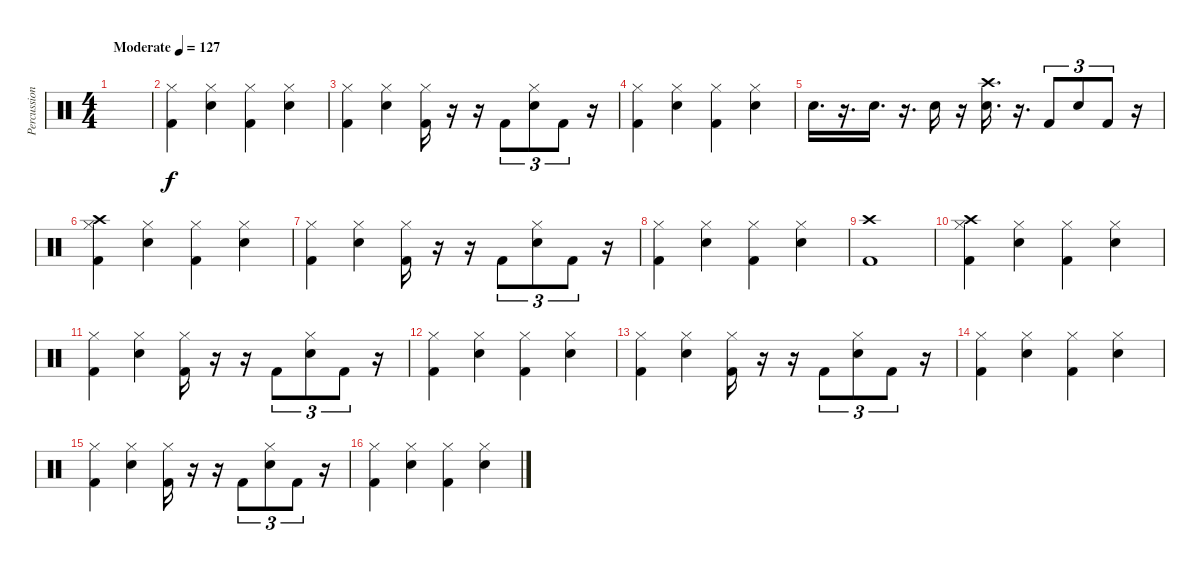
\track ("Percussions" "Percussion") {instrument percussion}
\staff {score}
\articulation defaults
\ts (4 4)
\tempo (127 "Moderate")
\clef neutral
\ks c
|
("Hi-Hat (closed)" "Kick (hit) 2").4 ("Hi-Hat (closed)" "Electric Snare (hit)").4 ("Hi-Hat (closed)" "Kick (hit) 2").4 ("Hi-Hat (closed)" "Electric Snare (hit)").4 |
("Hi-Hat (closed)" "Kick (hit) 2").4 ("Hi-Hat (closed)" "Electric Snare (hit)").4 ("Hi-Hat (closed)" "Kick (hit) 2").16 r.16 r.16 "Kick (hit) 2".8{tu (3 2)} ("Hi-Hat (closed)" "Electric Snare (hit)").8{tu (3 2)} "Kick (hit) 2".8{tu (3 2)} r.16 |
("Hi-Hat (closed)" "Kick (hit) 2").4 ("Hi-Hat (closed)" "Electric Snare (hit)").4 ("Hi-Hat (closed)" "Kick (hit) 2").4 ("Hi-Hat (closed)" "Electric Snare (hit)").4 |
"Electric Snare (hit)".16{d} r.16{d} "Electric Snare (hit)".16{d} r.16{d} "Electric Snare (hit)".16 r.16 ("Crash high (hit)" "Electric Snare (hit)").16{d} r.16{d} "Kick (hit) 2".8{tu (3 2)} "Electric Snare (hit)".8{tu (3 2)} "Kick (hit) 2".8{tu (3 2)} r.16 |
("Crash high (hit)" "Hi-Hat (closed)" "Kick (hit) 2").4 ("Hi-Hat (closed)" "Electric Snare (hit)").4 ("Hi-Hat (closed)" "Kick (hit) 2").4 ("Hi-Hat (closed)" "Electric Snare (hit)").4 |
("Hi-Hat (closed)" "Kick (hit) 2").4 ("Hi-Hat (closed)" "Electric Snare (hit)").4 ("Hi-Hat (closed)" "Kick (hit) 2").16 r.16 r.16 "Kick (hit) 2".8{tu (3 2)} ("Hi-Hat (closed)" "Electric Snare (hit)").8{tu (3 2)} "Kick (hit) 2".8{tu (3 2)} r.16 |
("Hi-Hat (closed)" "Kick (hit) 2").4 ("Hi-Hat (closed)" "Electric Snare (hit)").4 ("Hi-Hat (closed)" "Kick (hit) 2").4 ("Hi-Hat (closed)" "Electric Snare (hit)").4 |
("Crash high (hit)" "Kick (hit) 2").1 |
("Crash high (hit)" "Hi-Hat (closed)" "Kick (hit) 2").4 ("Hi-Hat (closed)" "Electric Snare (hit)").4 ("Hi-Hat (closed)" "Kick (hit) 2").4 ("Hi-Hat (closed)" "Electric Snare (hit)").4 |
("Hi-Hat (closed)" "Kick (hit) 2").4 ("Hi-Hat (closed)" "Electric Snare (hit)").4 ("Hi-Hat (closed)" "Kick (hit) 2").16 r.16 r.16 "Kick (hit) 2".8{tu (3 2)} ("Hi-Hat (closed)" "Electric Snare (hit)").8{tu (3 2)} "Kick (hit) 2".8{tu (3 2)} r.16 |
("Hi-Hat (closed)" "Kick (hit) 2").4 ("Hi-Hat (closed)" "Electric Snare (hit)").4 ("Hi-Hat (closed)" "Kick (hit) 2").4 ("Hi-Hat (closed)" "Electric Snare (hit)").4 |
("Hi-Hat (closed)" "Kick (hit) 2").4 ("Hi-Hat (closed)" "Electric Snare (hit)").4 ("Hi-Hat (closed)" "Kick (hit) 2").16 r.16 r.16 "Kick (hit) 2".8{tu (3 2)} ("Hi-Hat (closed)" "Electric Snare (hit)").8{tu (3 2)} "Kick (hit) 2".8{tu (3 2)} r.16 |
("Hi-Hat (closed)" "Kick (hit) 2").4 ("Hi-Hat (closed)" "Electric Snare (hit)").4 ("Hi-Hat (closed)" "Kick (hit) 2").4 ("Hi-Hat (closed)" "Electric Snare (hit)").4 |
("Hi-Hat (closed)" "Kick (hit) 2").4 ("Hi-Hat (closed)" "Electric Snare (hit)").4 ("Hi-Hat (closed)" "Kick (hit) 2").16 r.16 r.16 "Kick (hit) 2".8{tu (3 2)} ("Hi-Hat (closed)" "Electric Snare (hit)").8{tu (3 2)} "Kick (hit) 2".8{tu (3 2)} r.16 |
("Hi-Hat (closed)" "Kick (hit) 2").4 ("Hi-Hat (closed)" "Electric Snare (hit)").4 ("Hi-Hat (closed)" "Kick (hit) 2").4 ("Hi-Hat (closed)" "Electric Snare (hit)").4
